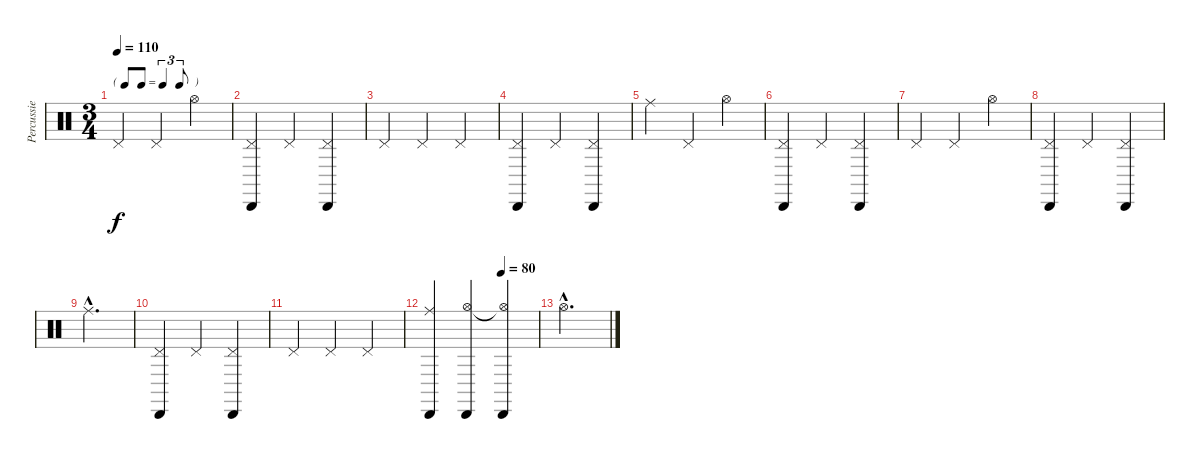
\track ("Percussie" "Percussie") {instrument percussion}
\staff {score}
\articulation defaults
\ts (3 4)
\tf triplet8th
\tempo 110
\clef neutral
\ks c "Pedal Hi-Hat (hit)".4{dy f} "Pedal Hi-Hat (hit)".4 "Hi-Hat (open)".4
|
("Cabasa (hit)" "Pedal Hi-Hat (hit)").4 "Pedal Hi-Hat (hit)".4 ("Cabasa (hit)" "Pedal Hi-Hat (hit)").4 |
"Pedal Hi-Hat (hit)".4 "Pedal Hi-Hat (hit)".4 "Pedal Hi-Hat (hit)".4 |
("Cabasa (hit)" "Pedal Hi-Hat (hit)").4 "Pedal Hi-Hat (hit)".4 ("Cabasa (hit)" "Pedal Hi-Hat (hit)").4 |
"Ride (middle)".4 "Pedal Hi-Hat (hit)".4 "Hi-Hat (open)".4 |
("Cabasa (hit)" "Pedal Hi-Hat (hit)").4 "Pedal Hi-Hat (hit)".4 ("Cabasa (hit)" "Pedal Hi-Hat (hit)").4 |
"Pedal Hi-Hat (hit)".4 "Pedal Hi-Hat (hit)".4 "Hi-Hat (open)".4 |
("Cabasa (hit)" "Pedal Hi-Hat (hit)").4 "Pedal Hi-Hat (hit)".4 ("Cabasa (hit)" "Pedal Hi-Hat (hit)").4 |
"Ride (middle)"{hac}.2{d} |
("Cabasa (hit)" "Pedal Hi-Hat (hit)").4 "Pedal Hi-Hat (hit)".4 ("Cabasa (hit)" "Pedal Hi-Hat (hit)").4 |
"Pedal Hi-Hat (hit)".4 "Pedal Hi-Hat (hit)".4 "Pedal Hi-Hat (hit)".4 |
\tempo (80 0.6666666666666666)
("Ride (middle)" "Cabasa (hit)").4 ("Hi-Hat (open)" "Cabasa (hit)").4 ("Hi-Hat (open)"{t} "Cabasa (hit)").4 |
"Hi-Hat (open)"{hac}.2{d}
